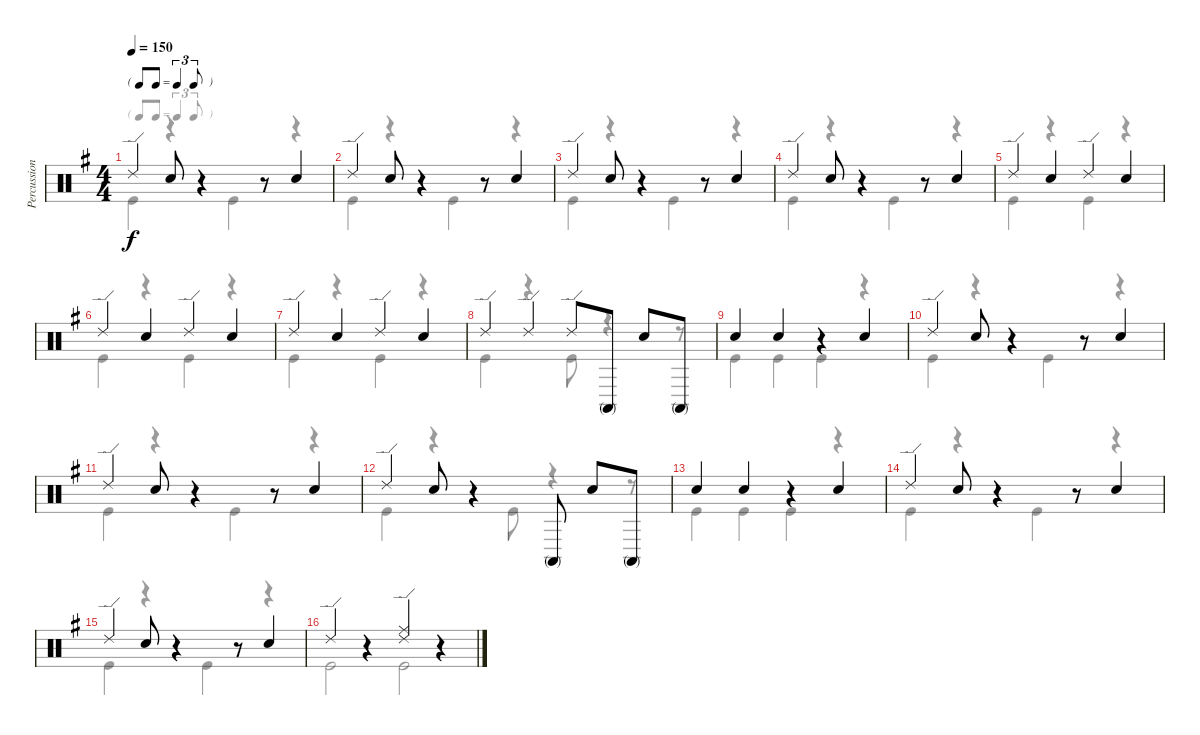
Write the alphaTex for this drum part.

\track ("Percussion" "Percussion") {instrument percussion}
\staff {score}
\articulation defaults
\voice
\ts (4 4)
\tf triplet8th
\tempo 150
\clef neutral
\ks g "Ride (edge) 2".4{dy f} "Electric Snare (hit)".8
r.4 r.8 "Electric Snare (hit)".4 |
"Ride (edge) 2".4 "Electric Snare (hit)".8 r.4 r.8 "Electric Snare (hit)".4 |
"Ride (edge) 2".4 "Electric Snare (hit)".8 r.4 r.8 "Electric Snare (hit)".4 |
"Ride (edge) 2".4 "Electric Snare (hit)".8 r.4 r.8 "Electric Snare (hit)".4 |
"Ride (edge) 2".4 "Electric Snare (hit)".4 "Ride (edge) 2".4 "Electric Snare (hit)".4 |
"Ride (edge) 2".4 "Electric Snare (hit)".4 "Ride (edge) 2".4 "Electric Snare (hit)".4 |
"Ride (edge) 2".4 "Electric Snare (hit)".4 "Ride (edge) 2".4 "Electric Snare (hit)".4 |
"Ride (edge) 2".4 "Ride (edge) 2".4 "Ride (edge) 2".8 "Conga high (mute)".8 "Electric Snare (hit)".8 "Conga high (mute)".8 |
"Electric Snare (hit)".4 "Electric Snare (hit)".4 r.4 "Electric Snare (hit)".4 |
"Ride (edge) 2".4 "Electric Snare (hit)".8 r.4 r.8 "Electric Snare (hit)".4 |
"Ride (edge) 2".4 "Electric Snare (hit)".8 r.4 r.8 "Electric Snare (hit)".4 |
"Ride (edge) 2".4 "Electric Snare (hit)".8 r.4 "Conga high (mute)".8 "Electric Snare (hit)".8 "Conga high (mute)".8 |
"Electric Snare (hit)".4 "Electric Snare (hit)".4 r.4 "Electric Snare (hit)".4 |
"Ride (edge) 2".4 "Electric Snare (hit)".8 r.4 r.8 "Electric Snare (hit)".4 |
"Ride (edge) 2".4 "Electric Snare (hit)".8 r.4 r.8 "Electric Snare (hit)".4 |
"Ride (edge) 2".4 r.4 ("Ride (middle)" "Ride (edge) 2").4 r.4
\voice
\clef neutral
\ottava regular
\simile none
\ks g "Kick (hit)".4{dy f}
r.4 "Kick (hit)".4 r.4 |
"Kick (hit)".4 r.4 "Kick (hit)".4 r.4 |
"Kick (hit)".4 r.4 "Kick (hit)".4 r.4 |
"Kick (hit)".4 r.4 "Kick (hit)".4 r.4 |
"Kick (hit)".4 r.4 "Kick (hit)".4 r.4 |
"Kick (hit)".4 r.4 "Kick (hit)".4 r.4 |
"Kick (hit)".4 r.4 "Kick (hit)".4 r.4 |
"Kick (hit)".4 r.4 "Kick (hit)".8 r.4 r.8 |
"Kick (hit)".4 "Kick (hit)".4 "Kick (hit)".4 r.4 |
"Kick (hit)".4 r.4 "Kick (hit)".4 r.4 |
"Kick (hit)".4 r.4 "Kick (hit)".4 r.4 |
"Kick (hit)".4 r.4 "Kick (hit)".8 r.4 r.8 |
"Kick (hit)".4 "Kick (hit)".4 "Kick (hit)".4 r.4 |
"Kick (hit)".4 r.4 "Kick (hit)".4 r.4 |
"Kick (hit)".4 r.4 "Kick (hit)".4 r.4 |
"Kick (hit)".2 "Kick (hit)".2
